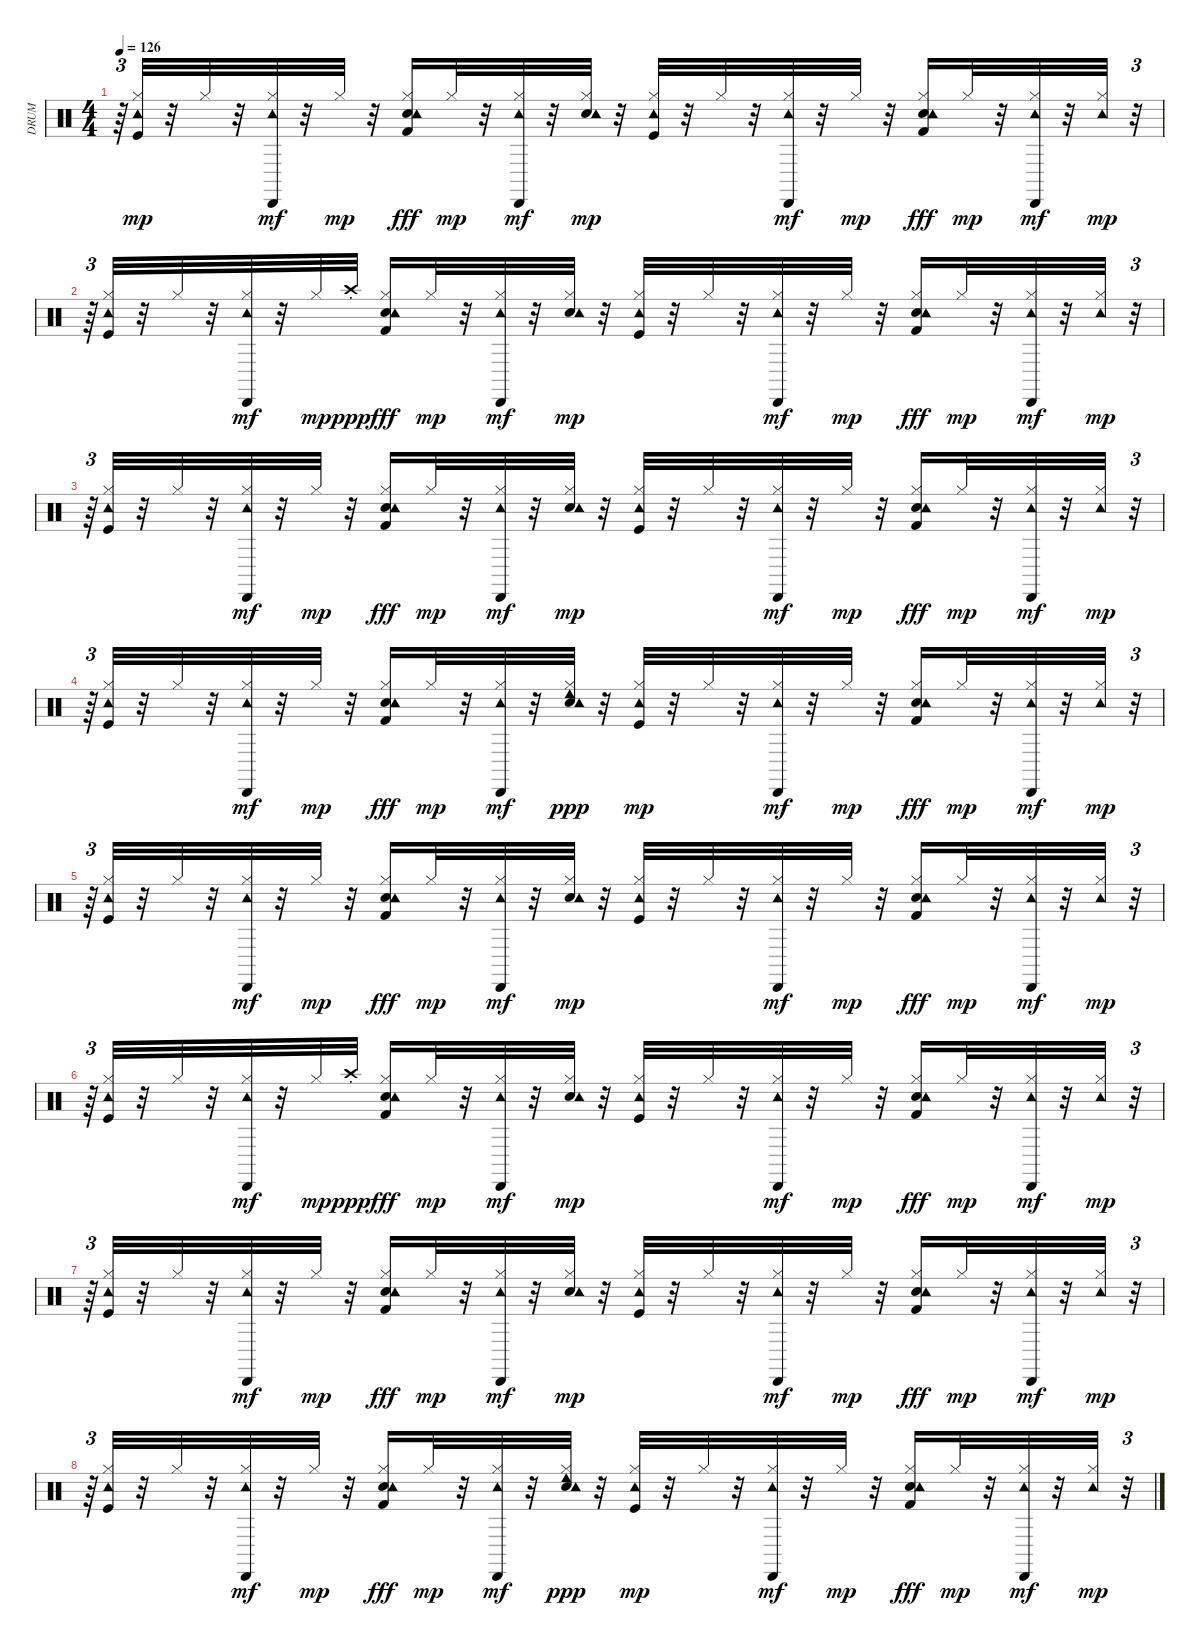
\track ("DRUM" "DRUM") {instrument percussion}
\staff {score}
\articulation defaults
\ts (4 4)
\tempo 126
\clef neutral
\ks c
r.64{tu (3 2) dy mp} ("Kick (hit)" "Hi-Hat (closed)" "Tambourine (hit)").32 r.32 "Hi-Hat (closed)".32 r.32 ("Hi-Hat (closed)" "Tambourine (hit)" "Cabasa (hit)").32{dy mf} r.32 "Hi-Hat (closed)".32{dy mp} r.32 ("Snare (hit) 2" "Hi-Hat (closed)" "Tambourine (hit)" "Kick (hit) 2").16{dy fff} "Hi-Hat (closed)".32{dy mp} r.32 ("Hi-Hat (closed)" "Tambourine (hit)" "Cabasa (hit)").32{dy mf} r.32 ("Snare (hit) 2" "Hi-Hat (closed)" "Tambourine (hit)").32{dy mp} r.32 ("Kick (hit)" "Hi-Hat (closed)" "Tambourine (hit)").32 r.32 "Hi-Hat (closed)".32 r.32 ("Hi-Hat (closed)" "Tambourine (hit)" "Cabasa (hit)").32{dy mf} r.32 "Hi-Hat (closed)".32{dy mp} r.32 ("Snare (hit) 2" "Hi-Hat (closed)" "Tambourine (hit)" "Kick (hit) 2").16{dy fff} "Hi-Hat (closed)".32{dy mp} r.32 ("Hi-Hat (closed)" "Tambourine (hit)" "Cabasa (hit)").32{dy mf} r.32 ("Hi-Hat (closed)" "Tambourine (hit)").32{dy mp} r.32{tu (3 2)} |
r.64{tu (3 2)} ("Kick (hit)" "Hi-Hat (closed)" "Tambourine (hit)").32 r.32 "Hi-Hat (closed)".32 r.32 ("Hi-Hat (closed)" "Tambourine (hit)" "Cabasa (hit)").32{dy mf} r.32 "Hi-Hat (closed)".32{dy mp} "Crash high (choke)".32{dy ppp} ("Snare (hit) 2" "Hi-Hat (closed)" "Tambourine (hit)" "Kick (hit) 2").16{dy fff} "Hi-Hat (closed)".32{dy mp} r.32 ("Hi-Hat (closed)" "Tambourine (hit)" "Cabasa (hit)").32{dy mf} r.32 ("Snare (hit) 2" "Hi-Hat (closed)" "Tambourine (hit)").32{dy mp} r.32 ("Kick (hit)" "Hi-Hat (closed)" "Tambourine (hit)").32 r.32 "Hi-Hat (closed)".32 r.32 ("Hi-Hat (closed)" "Tambourine (hit)" "Cabasa (hit)").32{dy mf} r.32 "Hi-Hat (closed)".32{dy mp} r.32 ("Snare (hit) 2" "Hi-Hat (closed)" "Tambourine (hit)" "Kick (hit) 2").16{dy fff} "Hi-Hat (closed)".32{dy mp} r.32 ("Hi-Hat (closed)" "Tambourine (hit)" "Cabasa (hit)").32{dy mf} r.32 ("Hi-Hat (closed)" "Tambourine (hit)").32{dy mp} r.32{tu (3 2)} |
r.64{tu (3 2)} ("Kick (hit)" "Hi-Hat (closed)" "Tambourine (hit)").32 r.32 "Hi-Hat (closed)".32 r.32 ("Hi-Hat (closed)" "Tambourine (hit)" "Cabasa (hit)").32{dy mf} r.32 "Hi-Hat (closed)".32{dy mp} r.32 ("Snare (hit) 2" "Hi-Hat (closed)" "Tambourine (hit)" "Kick (hit) 2").16{dy fff} "Hi-Hat (closed)".32{dy mp} r.32 ("Hi-Hat (closed)" "Tambourine (hit)" "Cabasa (hit)").32{dy mf} r.32 ("Snare (hit) 2" "Hi-Hat (closed)" "Tambourine (hit)").32{dy mp} r.32 ("Kick (hit)" "Hi-Hat (closed)" "Tambourine (hit)").32 r.32 "Hi-Hat (closed)".32 r.32 ("Hi-Hat (closed)" "Tambourine (hit)" "Cabasa (hit)").32{dy mf} r.32 "Hi-Hat (closed)".32{dy mp} r.32 ("Snare (hit) 2" "Hi-Hat (closed)" "Tambourine (hit)" "Kick (hit) 2").16{dy fff} "Hi-Hat (closed)".32{dy mp} r.32 ("Hi-Hat (closed)" "Tambourine (hit)" "Cabasa (hit)").32{dy mf} r.32 ("Hi-Hat (closed)" "Tambourine (hit)").32{dy mp} r.32{tu (3 2)} |
r.64{tu (3 2)} ("Kick (hit)" "Hi-Hat (closed)" "Tambourine (hit)").32 r.32 "Hi-Hat (closed)".32 r.32 ("Hi-Hat (closed)" "Tambourine (hit)" "Cabasa (hit)").32{dy mf} r.32 "Hi-Hat (closed)".32{dy mp} r.32 ("Snare (hit) 2" "Hi-Hat (closed)" "Tambourine (hit)" "Kick (hit) 2").16{dy fff} "Hi-Hat (closed)".32{dy mp} r.32 ("Hi-Hat (closed)" "Tambourine (hit)" "Cabasa (hit)").32{dy mf} r.32 ("Snare (hit) 2" "Hi-Hat (closed)" "Tambourine (hit)" "Cowbell low (hit)").32{dy ppp} r.32 ("Kick (hit)" "Hi-Hat (closed)" "Tambourine (hit)").32{dy mp} r.32 "Hi-Hat (closed)".32 r.32 ("Hi-Hat (closed)" "Tambourine (hit)" "Cabasa (hit)").32{dy mf} r.32 "Hi-Hat (closed)".32{dy mp} r.32 ("Snare (hit) 2" "Hi-Hat (closed)" "Tambourine (hit)" "Kick (hit) 2").16{dy fff} "Hi-Hat (closed)".32{dy mp} r.32 ("Hi-Hat (closed)" "Tambourine (hit)" "Cabasa (hit)").32{dy mf} r.32 ("Hi-Hat (closed)" "Tambourine (hit)").32{dy mp} r.32{tu (3 2)} |
r.64{tu (3 2)} ("Kick (hit)" "Hi-Hat (closed)" "Tambourine (hit)").32 r.32 "Hi-Hat (closed)".32 r.32 ("Hi-Hat (closed)" "Tambourine (hit)" "Cabasa (hit)").32{dy mf} r.32 "Hi-Hat (closed)".32{dy mp} r.32 ("Snare (hit) 2" "Hi-Hat (closed)" "Tambourine (hit)" "Kick (hit) 2").16{dy fff} "Hi-Hat (closed)".32{dy mp} r.32 ("Hi-Hat (closed)" "Tambourine (hit)" "Cabasa (hit)").32{dy mf} r.32 ("Snare (hit) 2" "Hi-Hat (closed)" "Tambourine (hit)").32{dy mp} r.32 ("Kick (hit)" "Hi-Hat (closed)" "Tambourine (hit)").32 r.32 "Hi-Hat (closed)".32 r.32 ("Hi-Hat (closed)" "Tambourine (hit)" "Cabasa (hit)").32{dy mf} r.32 "Hi-Hat (closed)".32{dy mp} r.32 ("Snare (hit) 2" "Hi-Hat (closed)" "Tambourine (hit)" "Kick (hit) 2").16{dy fff} "Hi-Hat (closed)".32{dy mp} r.32 ("Hi-Hat (closed)" "Tambourine (hit)" "Cabasa (hit)").32{dy mf} r.32 ("Hi-Hat (closed)" "Tambourine (hit)").32{dy mp} r.32{tu (3 2)} |
r.64{tu (3 2)} ("Kick (hit)" "Hi-Hat (closed)" "Tambourine (hit)").32 r.32 "Hi-Hat (closed)".32 r.32 ("Hi-Hat (closed)" "Tambourine (hit)" "Cabasa (hit)").32{dy mf} r.32 "Hi-Hat (closed)".32{dy mp} "Crash high (choke)".32{dy ppp} ("Snare (hit) 2" "Hi-Hat (closed)" "Tambourine (hit)" "Kick (hit) 2").16{dy fff} "Hi-Hat (closed)".32{dy mp} r.32 ("Hi-Hat (closed)" "Tambourine (hit)" "Cabasa (hit)").32{dy mf} r.32 ("Snare (hit) 2" "Hi-Hat (closed)" "Tambourine (hit)").32{dy mp} r.32 ("Kick (hit)" "Hi-Hat (closed)" "Tambourine (hit)").32 r.32 "Hi-Hat (closed)".32 r.32 ("Hi-Hat (closed)" "Tambourine (hit)" "Cabasa (hit)").32{dy mf} r.32 "Hi-Hat (closed)".32{dy mp} r.32 ("Snare (hit) 2" "Hi-Hat (closed)" "Tambourine (hit)" "Kick (hit) 2").16{dy fff} "Hi-Hat (closed)".32{dy mp} r.32 ("Hi-Hat (closed)" "Tambourine (hit)" "Cabasa (hit)").32{dy mf} r.32 ("Hi-Hat (closed)" "Tambourine (hit)").32{dy mp} r.32{tu (3 2)} |
r.64{tu (3 2)} ("Kick (hit)" "Hi-Hat (closed)" "Tambourine (hit)").32 r.32 "Hi-Hat (closed)".32 r.32 ("Hi-Hat (closed)" "Tambourine (hit)" "Cabasa (hit)").32{dy mf} r.32 "Hi-Hat (closed)".32{dy mp} r.32 ("Snare (hit) 2" "Hi-Hat (closed)" "Tambourine (hit)" "Kick (hit) 2").16{dy fff} "Hi-Hat (closed)".32{dy mp} r.32 ("Hi-Hat (closed)" "Tambourine (hit)" "Cabasa (hit)").32{dy mf} r.32 ("Snare (hit) 2" "Hi-Hat (closed)" "Tambourine (hit)").32{dy mp} r.32 ("Kick (hit)" "Hi-Hat (closed)" "Tambourine (hit)").32 r.32 "Hi-Hat (closed)".32 r.32 ("Hi-Hat (closed)" "Tambourine (hit)" "Cabasa (hit)").32{dy mf} r.32 "Hi-Hat (closed)".32{dy mp} r.32 ("Snare (hit) 2" "Hi-Hat (closed)" "Tambourine (hit)" "Kick (hit) 2").16{dy fff} "Hi-Hat (closed)".32{dy mp} r.32 ("Hi-Hat (closed)" "Tambourine (hit)" "Cabasa (hit)").32{dy mf} r.32 ("Hi-Hat (closed)" "Tambourine (hit)").32{dy mp} r.32{tu (3 2)} |
r.64{tu (3 2)} ("Kick (hit)" "Hi-Hat (closed)" "Tambourine (hit)").32 r.32 "Hi-Hat (closed)".32 r.32 ("Hi-Hat (closed)" "Tambourine (hit)" "Cabasa (hit)").32{dy mf} r.32 "Hi-Hat (closed)".32{dy mp} r.32 ("Snare (hit) 2" "Hi-Hat (closed)" "Tambourine (hit)" "Kick (hit) 2").16{dy fff} "Hi-Hat (closed)".32{dy mp} r.32 ("Hi-Hat (closed)" "Tambourine (hit)" "Cabasa (hit)").32{dy mf} r.32 ("Snare (hit) 2" "Hi-Hat (closed)" "Tambourine (hit)" "Cowbell low (hit)").32{dy ppp} r.32 ("Kick (hit)" "Hi-Hat (closed)" "Tambourine (hit)").32{dy mp} r.32 "Hi-Hat (closed)".32 r.32 ("Hi-Hat (closed)" "Tambourine (hit)" "Cabasa (hit)").32{dy mf} r.32 "Hi-Hat (closed)".32{dy mp} r.32 ("Snare (hit) 2" "Hi-Hat (closed)" "Tambourine (hit)" "Kick (hit) 2").16{dy fff} "Hi-Hat (closed)".32{dy mp} r.32 ("Hi-Hat (closed)" "Tambourine (hit)" "Cabasa (hit)").32{dy mf} r.32 ("Hi-Hat (closed)" "Tambourine (hit)").32{dy mp} r.32{tu (3 2)}
